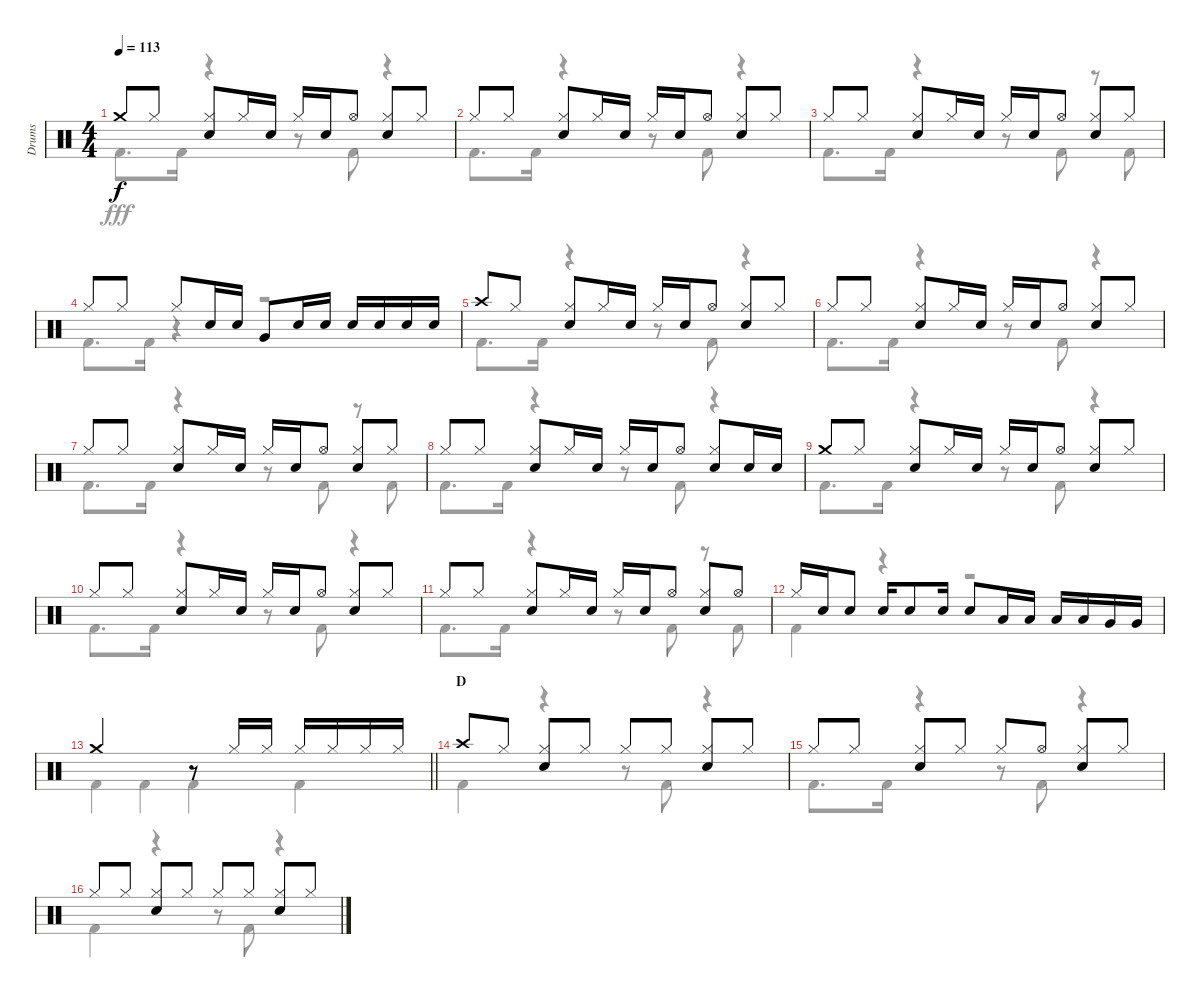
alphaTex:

\track ("Drums" "Drums") {instrument percussion}
\staff {score}
\articulation defaults
\voice
\ts (4 4)
\tempo 113
\clef neutral
\ks c "Crash medium (hit)".8{dy f} "Hi-Hat (closed)".8
("Hi-Hat (closed)" "Snare (hit) 2").8 "Hi-Hat (closed)".16 "Snare (hit) 2".16 "Hi-Hat (closed)".16 "Snare (hit) 2".16 "Hi-Hat (open)".8 ("Hi-Hat (closed)" "Snare (hit) 2").8 "Hi-Hat (closed)".8 |
"Hi-Hat (closed)".8 "Hi-Hat (closed)".8 ("Hi-Hat (closed)" "Snare (hit) 2").8 "Hi-Hat (closed)".16 "Snare (hit) 2".16 "Hi-Hat (closed)".16 "Snare (hit) 2".16 "Hi-Hat (open)".8 ("Hi-Hat (closed)" "Snare (hit) 2").8 "Hi-Hat (closed)".8 |
"Hi-Hat (closed)".8 "Hi-Hat (closed)".8 ("Hi-Hat (closed)" "Snare (hit) 2").8 "Hi-Hat (closed)".16 "Snare (hit) 2".16 "Hi-Hat (closed)".16 "Snare (hit) 2".16 "Hi-Hat (open)".8 ("Hi-Hat (closed)" "Snare (hit) 2").8 "Hi-Hat (closed)".8 |
"Hi-Hat (closed)".8 "Hi-Hat (closed)".8 "Hi-Hat (closed)".8 "Snare (hit) 2".16 "Snare (hit) 2".16 "Very Low Tom (hit)".8 "Snare (hit) 2".16 "Snare (hit) 2".16 "Snare (hit) 2".16 "Snare (hit) 2".16 "Snare (hit) 2".16 "Snare (hit) 2".16 |
"Crash high (hit)".8 "Hi-Hat (closed)".8 ("Hi-Hat (closed)" "Snare (hit) 2").8 "Hi-Hat (closed)".16 "Snare (hit) 2".16 "Hi-Hat (closed)".16 "Snare (hit) 2".16 "Hi-Hat (open)".8 ("Hi-Hat (closed)" "Snare (hit) 2").8 "Hi-Hat (closed)".8 |
"Hi-Hat (closed)".8 "Hi-Hat (closed)".8 ("Hi-Hat (closed)" "Snare (hit) 2").8 "Hi-Hat (closed)".16 "Snare (hit) 2".16 "Hi-Hat (closed)".16 "Snare (hit) 2".16 "Hi-Hat (open)".8 ("Hi-Hat (closed)" "Snare (hit) 2").8 "Hi-Hat (closed)".8 |
"Hi-Hat (closed)".8 "Hi-Hat (closed)".8 ("Hi-Hat (closed)" "Snare (hit) 2").8 "Hi-Hat (closed)".16 "Snare (hit) 2".16 "Hi-Hat (closed)".16 "Snare (hit) 2".16 "Hi-Hat (open)".8 ("Hi-Hat (closed)" "Snare (hit) 2").8 "Hi-Hat (closed)".8 |
"Hi-Hat (closed)".8 "Hi-Hat (closed)".8 ("Hi-Hat (closed)" "Snare (hit) 2").8 "Hi-Hat (closed)".16 "Snare (hit) 2".16 "Hi-Hat (closed)".16 "Snare (hit) 2".16 "Hi-Hat (open)".8 ("Hi-Hat (closed)" "Snare (hit) 2").8 "Snare (hit) 2".16 "Snare (hit) 2".16 |
"Crash medium (hit)".8 "Hi-Hat (closed)".8 ("Hi-Hat (closed)" "Snare (hit) 2").8 "Hi-Hat (closed)".16 "Snare (hit) 2".16 "Hi-Hat (closed)".16 "Snare (hit) 2".16 "Hi-Hat (open)".8 ("Hi-Hat (closed)" "Snare (hit) 2").8 "Hi-Hat (closed)".8 |
"Hi-Hat (closed)".8 "Hi-Hat (closed)".8 ("Hi-Hat (closed)" "Snare (hit) 2").8 "Hi-Hat (closed)".16 "Snare (hit) 2".16 "Hi-Hat (closed)".16 "Snare (hit) 2".16 "Hi-Hat (open)".8 ("Hi-Hat (closed)" "Snare (hit) 2").8 "Hi-Hat (closed)".8 |
"Hi-Hat (closed)".8 "Hi-Hat (closed)".8 ("Hi-Hat (closed)" "Snare (hit) 2").8 "Hi-Hat (closed)".16 "Snare (hit) 2".16 "Hi-Hat (closed)".16 "Snare (hit) 2".16 "Hi-Hat (open)".8 ("Hi-Hat (closed)" "Snare (hit) 2").8 "Hi-Hat (open)".8 |
"Hi-Hat (closed)".16 "Snare (hit) 2".16 "Snare (hit) 2".8 "Snare (hit) 2".16 "Snare (hit) 2".8 "Snare (hit) 2".16 "Snare (hit) 2".8 "Low Tom (hit)".16 "Low Tom (hit)".16 "Low Tom (hit)".16 "Low Tom (hit)".16 "Very Low Tom (hit)".16 "Very Low Tom (hit)".16 |
\barLineRight lightlight "Crash medium (hit)".2
r.8 "Hi-Hat (closed)".16 "Hi-Hat (closed)".16 "Hi-Hat (closed)".16 "Hi-Hat (closed)".16 "Hi-Hat (closed)".16 "Hi-Hat (closed)".16 |
\section ("" "D")
"Crash high (hit)".8 "Hi-Hat (closed)".8 ("Hi-Hat (closed)" "Snare (hit) 2").8 "Hi-Hat (closed)".8 "Hi-Hat (closed)".8 "Hi-Hat (closed)".8 ("Hi-Hat (closed)" "Snare (hit) 2").8 "Hi-Hat (closed)".8 |
"Hi-Hat (closed)".8 "Hi-Hat (closed)".8 ("Hi-Hat (closed)" "Snare (hit) 2").8 "Hi-Hat (closed)".8 "Hi-Hat (closed)".8 "Hi-Hat (open)".8 ("Hi-Hat (closed)" "Snare (hit) 2").8 "Hi-Hat (closed)".8 |
"Hi-Hat (closed)".8 "Hi-Hat (closed)".8 ("Hi-Hat (closed)" "Snare (hit) 2").8 "Hi-Hat (closed)".8 "Hi-Hat (closed)".8 "Hi-Hat (closed)".8 ("Hi-Hat (closed)" "Snare (hit) 2").8 "Hi-Hat (closed)".8
\voice
\clef neutral
\ottava regular
\simile none
\ks c "Kick (hit) 2".8{d dy fff} "Kick (hit) 2".16
r.4 r.8 "Kick (hit) 2".8 r.4 |
"Kick (hit) 2".8{d} "Kick (hit) 2".16 r.4 r.8 "Kick (hit) 2".8 r.4 |
"Kick (hit) 2".8{d} "Kick (hit) 2".16 r.4 r.8 "Kick (hit) 2".8 r.8 "Kick (hit) 2".8 |
"Kick (hit) 2".8{d} "Kick (hit) 2".16 r.4 r.2 |
"Kick (hit) 2".8{d} "Kick (hit) 2".16 r.4 r.8 "Kick (hit) 2".8 r.4 |
"Kick (hit) 2".8{d} "Kick (hit) 2".16 r.4 r.8 "Kick (hit) 2".8 r.4 |
"Kick (hit) 2".8{d} "Kick (hit) 2".16 r.4 r.8 "Kick (hit) 2".8 r.8 "Kick (hit) 2".8 |
"Kick (hit) 2".8{d} "Kick (hit) 2".16 r.4 r.8 "Kick (hit) 2".8 r.4 |
"Kick (hit) 2".8{d} "Kick (hit) 2".16 r.4 r.8 "Kick (hit) 2".8 r.4 |
"Kick (hit) 2".8{d} "Kick (hit) 2".16 r.4 r.8 "Kick (hit) 2".8 r.4 |
"Kick (hit) 2".8{d} "Kick (hit) 2".16 r.4 r.8 "Kick (hit) 2".8 r.8 "Kick (hit) 2".8 |
"Kick (hit) 2".4 r.4 r.2 |
\barLineRight lightlight "Kick (hit) 2".4 "Kick (hit) 2".4 "Kick (hit) 2".4 "Kick (hit) 2".4
|
"Kick (hit) 2".4 r.4 r.8 "Kick (hit) 2".8 r.4 |
"Kick (hit) 2".8{d} "Kick (hit) 2".16 r.4 r.8 "Kick (hit) 2".8 r.4 |
"Kick (hit) 2".4 r.4 r.8 "Kick (hit) 2".8 r.4
